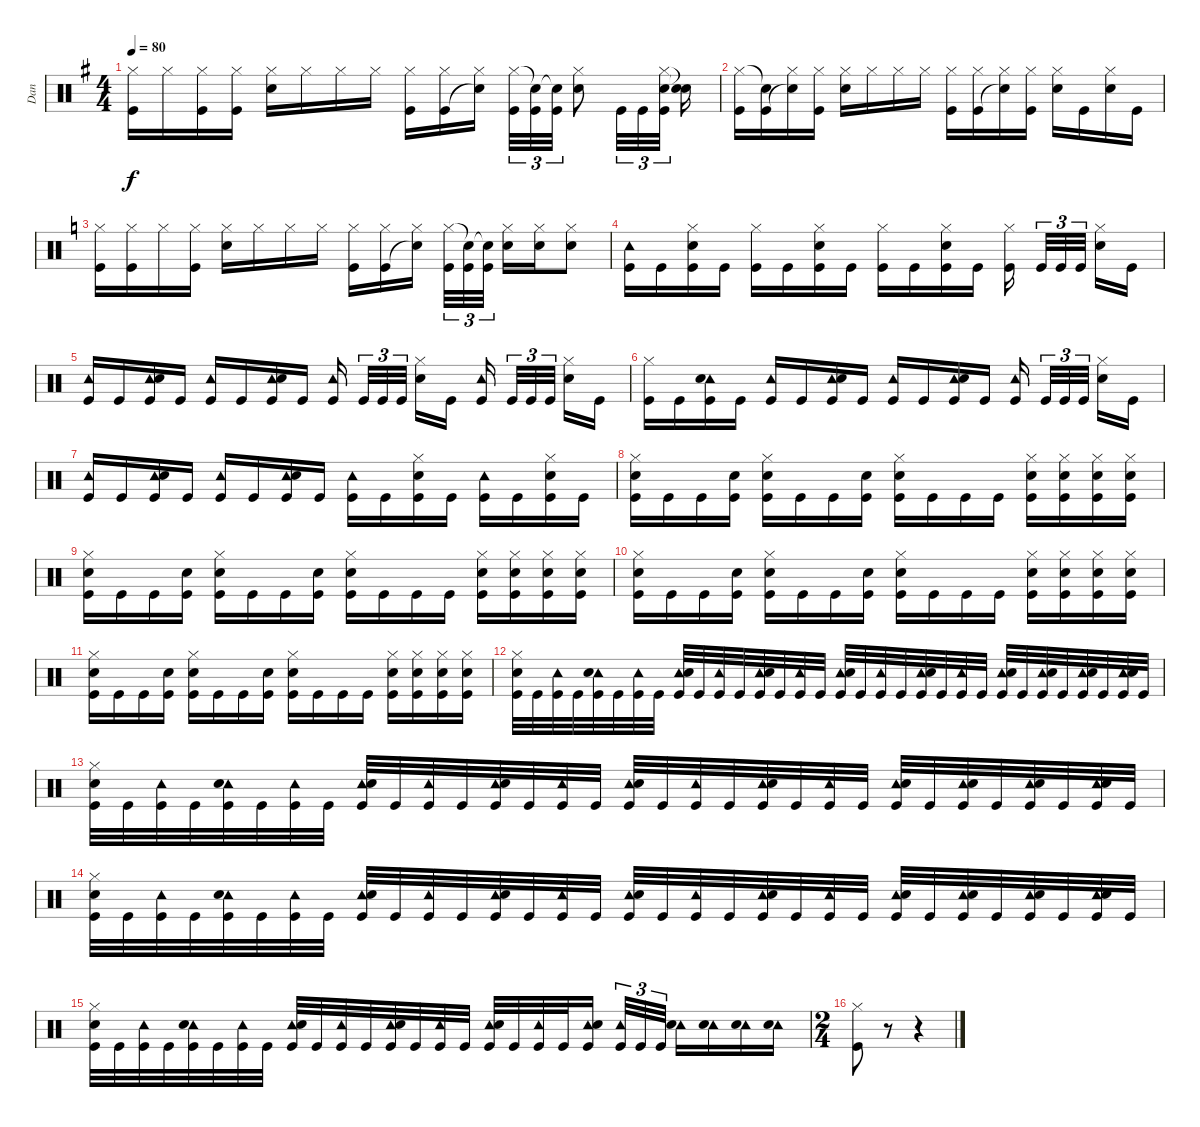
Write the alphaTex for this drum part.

\track ("Dan" "Dan") {instrument percussion}
\staff {score}
\articulation defaults
\ts (4 4)
\tempo 80
\clef neutral
\ks g
("Hi-Hat (closed)" "Kick (hit)").16{dy f} "Hi-Hat (closed)".16 ("Hi-Hat (closed)" "Kick (hit)").16 ("Hi-Hat (closed)" "Kick (hit)").16 ("Hi-Hat (closed)" "Snare (hit) 2").16 "Hi-Hat (closed)".16 "Hi-Hat (closed)".16 "Hi-Hat (closed)".16 ("Hi-Hat (closed)" "Kick (hit)").16 ("Hi-Hat (closed)" "Kick (hit)").16 ("Hi-Hat (closed)" "Snare (hit)"{t}).16{beam splitsecondary} ("Hi-Hat (closed)" "Kick (hit)").32{tu (3 2)} ("Snare (hit)"{t} "Kick (hit)").32{tu (3 2)} ("Snare (hit)"{t} "Kick (hit)").32{tu (3 2)} ("Hi-Hat (closed)" "Snare (hit) 2").8 "Kick (hit)".32{tu (3 2)} "Kick (hit)".32{tu (3 2)} ("Hi-Hat (closed)" "Snare (hit) 2" "Kick (hit)").32{tu (3 2) beam splitsecondary} ("Snare (hit)"{t} "Snare (hit)"{t}).16 |
("Hi-Hat (closed)" "Kick (hit)").16 ("Snare (hit)"{t} "Kick (hit)").16 ("Hi-Hat (closed)" "Snare (hit)"{t}).16 ("Hi-Hat (closed)" "Kick (hit)").16 ("Hi-Hat (closed)" "Snare (hit) 2").16 "Hi-Hat (closed)".16 "Hi-Hat (closed)".16 "Hi-Hat (closed)".16 ("Hi-Hat (closed)" "Kick (hit)").16 ("Hi-Hat (closed)" "Kick (hit)").16 ("Hi-Hat (closed)" "Snare (hit)"{t}).16 ("Hi-Hat (closed)" "Kick (hit)").16 ("Hi-Hat (closed)" "Snare (hit) 2").16 "Kick (hit)".16 ("Hi-Hat (closed)" "Snare (hit) 2").16 "Kick (hit)".16 |
\ks c
("Hi-Hat (closed)" "Kick (hit)").16 ("Hi-Hat (closed)" "Kick (hit)").16 "Hi-Hat (closed)".16 ("Hi-Hat (closed)" "Kick (hit)").16 ("Hi-Hat (closed)" "Snare (hit) 2").16 "Hi-Hat (closed)".16 "Hi-Hat (closed)".16 "Hi-Hat (closed)".16 ("Hi-Hat (closed)" "Kick (hit)").16 ("Hi-Hat (closed)" "Kick (hit)").16 ("Hi-Hat (closed)" "Snare (hit)"{t}).16{beam splitsecondary} ("Hi-Hat (closed)" "Kick (hit)").32{tu (3 2)} ("Snare (hit)"{t} "Kick (hit)").32{tu (3 2)} ("Snare (hit)"{t} "Kick (hit)").32{tu (3 2)} ("Hi-Hat (closed)" "Snare (hit) 2").16 ("Hi-Hat (closed)" "Snare (hit) 2").16 ("Hi-Hat (closed)" "Snare (hit) 2").8 |
("Tambourine (hit)" "Kick (hit)").16 "Kick (hit)".16 ("Hi-Hat (closed)" "Snare (hit) 2" "Kick (hit)").16 "Kick (hit)".16 ("Hi-Hat (closed)" "Kick (hit)").16 "Kick (hit)".16 ("Hi-Hat (closed)" "Snare (hit) 2" "Kick (hit)").16 "Kick (hit)".16 ("Hi-Hat (closed)" "Kick (hit)").16 "Kick (hit)".16 ("Hi-Hat (closed)" "Snare (hit) 2" "Kick (hit)").16 "Kick (hit)".16 ("Hi-Hat (closed)" "Kick (hit)").16{beam splitsecondary} "Kick (hit)".32{tu (3 2)} "Kick (hit)".32{tu (3 2)} "Kick (hit)".32{tu (3 2) beam splitsecondary} ("Hi-Hat (closed)" "Snare (hit) 2").16 "Kick (hit)".16 |
("Tambourine (hit)" "Kick (hit)").16 "Kick (hit)".16 ("Tambourine (hit)" "Snare (hit) 2" "Kick (hit)").16 "Kick (hit)".16 ("Tambourine (hit)" "Kick (hit)").16 "Kick (hit)".16 ("Tambourine (hit)" "Snare (hit) 2" "Kick (hit)").16 "Kick (hit)".16 ("Tambourine (hit)" "Kick (hit)").16{beam splitsecondary} "Kick (hit)".32{tu (3 2)} "Kick (hit)".32{tu (3 2)} "Kick (hit)".32{tu (3 2) beam splitsecondary} ("Hi-Hat (closed)" "Snare (hit) 2").16 "Kick (hit)".16 ("Tambourine (hit)" "Kick (hit)").16{beam splitsecondary} "Kick (hit)".32{tu (3 2)} "Kick (hit)".32{tu (3 2)} "Kick (hit)".32{tu (3 2) beam splitsecondary} ("Hi-Hat (closed)" "Snare (hit) 2").16 "Kick (hit)".16 |
("Hi-Hat (closed)" "Kick (hit)").16 "Kick (hit)".16 ("Tambourine (hit)" "Snare (hit) 2" "Kick (hit)").16 "Kick (hit)".16 ("Tambourine (hit)" "Kick (hit)").16 "Kick (hit)".16 ("Tambourine (hit)" "Snare (hit) 2" "Kick (hit)").16 "Kick (hit)".16 ("Tambourine (hit)" "Kick (hit)").16 "Kick (hit)".16 ("Tambourine (hit)" "Snare (hit) 2" "Kick (hit)").16 "Kick (hit)".16 ("Tambourine (hit)" "Kick (hit)").16{beam splitsecondary} "Kick (hit)".32{tu (3 2)} "Kick (hit)".32{tu (3 2)} "Kick (hit)".32{tu (3 2) beam splitsecondary} ("Hi-Hat (closed)" "Snare (hit) 2").16 "Kick (hit)".16 |
("Tambourine (hit)" "Kick (hit)").16 "Kick (hit)".16 ("Tambourine (hit)" "Snare (hit) 2" "Kick (hit)").16 "Kick (hit)".16 ("Tambourine (hit)" "Kick (hit)").16 "Kick (hit)".16 ("Tambourine (hit)" "Snare (hit) 2" "Kick (hit)").16 "Kick (hit)".16 ("Tambourine (hit)" "Kick (hit)").16 "Kick (hit)".16 ("Hi-Hat (closed)" "Snare (hit) 2" "Kick (hit)").16 "Kick (hit)".16 ("Tambourine (hit)" "Kick (hit)").16 "Kick (hit)".16 ("Hi-Hat (closed)" "Snare (hit) 2" "Kick (hit)").16 "Kick (hit)".16 |
("Hi-Hat (closed)" "Snare (hit) 2" "Kick (hit)").16 "Kick (hit)".16 "Kick (hit)".16 ("Snare (hit) 2" "Kick (hit)").16 ("Hi-Hat (closed)" "Snare (hit) 2" "Kick (hit)").16 "Kick (hit)".16 "Kick (hit)".16 ("Snare (hit) 2" "Kick (hit)").16 ("Hi-Hat (closed)" "Snare (hit) 2" "Kick (hit)").16 "Kick (hit)".16 "Kick (hit)".16 "Kick (hit)".16 ("Hi-Hat (closed)" "Snare (hit) 2" "Kick (hit)").16 ("Hi-Hat (closed)" "Snare (hit) 2" "Kick (hit)").16 ("Hi-Hat (closed)" "Snare (hit) 2" "Kick (hit)").16 ("Hi-Hat (closed)" "Snare (hit) 2" "Kick (hit)").16 |
("Hi-Hat (closed)" "Snare (hit) 2" "Kick (hit)").16 "Kick (hit)".16 "Kick (hit)".16 ("Snare (hit) 2" "Kick (hit)").16 ("Hi-Hat (closed)" "Snare (hit) 2" "Kick (hit)").16 "Kick (hit)".16 "Kick (hit)".16 ("Snare (hit) 2" "Kick (hit)").16 ("Hi-Hat (closed)" "Snare (hit) 2" "Kick (hit)").16 "Kick (hit)".16 "Kick (hit)".16 "Kick (hit)".16 ("Hi-Hat (closed)" "Snare (hit) 2" "Kick (hit)").16 ("Hi-Hat (closed)" "Snare (hit) 2" "Kick (hit)").16 ("Hi-Hat (closed)" "Snare (hit) 2" "Kick (hit)").16 ("Hi-Hat (closed)" "Snare (hit) 2" "Kick (hit)").16 |
("Hi-Hat (closed)" "Snare (hit) 2" "Kick (hit)").16 "Kick (hit)".16 "Kick (hit)".16 ("Snare (hit) 2" "Kick (hit)").16 ("Hi-Hat (closed)" "Snare (hit) 2" "Kick (hit)").16 "Kick (hit)".16 "Kick (hit)".16 ("Snare (hit) 2" "Kick (hit)").16 ("Hi-Hat (closed)" "Snare (hit) 2" "Kick (hit)").16 "Kick (hit)".16 "Kick (hit)".16 "Kick (hit)".16 ("Hi-Hat (closed)" "Snare (hit) 2" "Kick (hit)").16 ("Hi-Hat (closed)" "Snare (hit) 2" "Kick (hit)").16 ("Hi-Hat (closed)" "Snare (hit) 2" "Kick (hit)").16 ("Hi-Hat (closed)" "Snare (hit) 2" "Kick (hit)").16 |
("Hi-Hat (closed)" "Snare (hit) 2" "Kick (hit)").16 "Kick (hit)".16 "Kick (hit)".16 ("Snare (hit) 2" "Kick (hit)").16 ("Hi-Hat (closed)" "Snare (hit) 2" "Kick (hit)").16 "Kick (hit)".16 "Kick (hit)".16 ("Snare (hit) 2" "Kick (hit)").16 ("Hi-Hat (closed)" "Snare (hit) 2" "Kick (hit)").16 "Kick (hit)".16 "Kick (hit)".16 "Kick (hit)".16 ("Hi-Hat (closed)" "Snare (hit) 2" "Kick (hit)").16 ("Hi-Hat (closed)" "Snare (hit) 2" "Kick (hit)").16 ("Hi-Hat (closed)" "Snare (hit) 2" "Kick (hit)").16 ("Hi-Hat (closed)" "Snare (hit) 2" "Kick (hit)").16 |
("Hi-Hat (closed)" "Snare (hit) 2" "Kick (hit)").32 "Kick (hit)".32 ("Tambourine (hit)" "Kick (hit)").32 "Kick (hit)".32 ("Tambourine (hit)" "Snare (hit) 2" "Kick (hit)").32 "Kick (hit)".32 ("Tambourine (hit)" "Kick (hit)").32 "Kick (hit)".32 ("Tambourine (hit)" "Snare (hit) 2" "Kick (hit)").32 "Kick (hit)".32 ("Tambourine (hit)" "Kick (hit)").32 "Kick (hit)".32 ("Tambourine (hit)" "Snare (hit) 2" "Kick (hit)").32 "Kick (hit)".32 ("Tambourine (hit)" "Kick (hit)").32 "Kick (hit)".32 ("Tambourine (hit)" "Snare (hit) 2" "Kick (hit)").32 "Kick (hit)".32 ("Tambourine (hit)" "Kick (hit)").32 "Kick (hit)".32 ("Tambourine (hit)" "Snare (hit) 2" "Kick (hit)").32 "Kick (hit)".32 ("Tambourine (hit)" "Kick (hit)").32 "Kick (hit)".32 ("Tambourine (hit)" "Snare (hit) 2" "Kick (hit)").32 "Kick (hit)".32 ("Tambourine (hit)" "Snare (hit) 2" "Kick (hit)").32 "Kick (hit)".32 ("Tambourine (hit)" "Snare (hit) 2" "Kick (hit)").32 "Kick (hit)".32 ("Tambourine (hit)" "Snare (hit) 2" "Kick (hit)").32 "Kick (hit)".32 |
("Hi-Hat (closed)" "Snare (hit) 2" "Kick (hit)").32 "Kick (hit)".32 ("Tambourine (hit)" "Kick (hit)").32 "Kick (hit)".32 ("Tambourine (hit)" "Snare (hit) 2" "Kick (hit)").32 "Kick (hit)".32 ("Tambourine (hit)" "Kick (hit)").32 "Kick (hit)".32 ("Tambourine (hit)" "Snare (hit) 2" "Kick (hit)").32 "Kick (hit)".32 ("Tambourine (hit)" "Kick (hit)").32 "Kick (hit)".32 ("Tambourine (hit)" "Snare (hit) 2" "Kick (hit)").32 "Kick (hit)".32 ("Tambourine (hit)" "Kick (hit)").32 "Kick (hit)".32 ("Tambourine (hit)" "Snare (hit) 2" "Kick (hit)").32 "Kick (hit)".32 ("Tambourine (hit)" "Kick (hit)").32 "Kick (hit)".32 ("Tambourine (hit)" "Snare (hit) 2" "Kick (hit)").32 "Kick (hit)".32 ("Tambourine (hit)" "Kick (hit)").32 "Kick (hit)".32 ("Tambourine (hit)" "Snare (hit) 2" "Kick (hit)").32 "Kick (hit)".32 ("Tambourine (hit)" "Snare (hit) 2" "Kick (hit)").32 "Kick (hit)".32 ("Tambourine (hit)" "Snare (hit) 2" "Kick (hit)").32 "Kick (hit)".32 ("Tambourine (hit)" "Snare (hit) 2" "Kick (hit)").32 "Kick (hit)".32 |
("Hi-Hat (closed)" "Snare (hit) 2" "Kick (hit)").32 "Kick (hit)".32 ("Tambourine (hit)" "Kick (hit)").32 "Kick (hit)".32 ("Tambourine (hit)" "Snare (hit) 2" "Kick (hit)").32 "Kick (hit)".32 ("Tambourine (hit)" "Kick (hit)").32 "Kick (hit)".32 ("Tambourine (hit)" "Snare (hit) 2" "Kick (hit)").32 "Kick (hit)".32 ("Tambourine (hit)" "Kick (hit)").32 "Kick (hit)".32 ("Tambourine (hit)" "Snare (hit) 2" "Kick (hit)").32 "Kick (hit)".32 ("Tambourine (hit)" "Kick (hit)").32 "Kick (hit)".32 ("Tambourine (hit)" "Snare (hit) 2" "Kick (hit)").32 "Kick (hit)".32 ("Tambourine (hit)" "Kick (hit)").32 "Kick (hit)".32 ("Tambourine (hit)" "Snare (hit) 2" "Kick (hit)").32 "Kick (hit)".32 ("Tambourine (hit)" "Kick (hit)").32 "Kick (hit)".32 ("Tambourine (hit)" "Snare (hit) 2" "Kick (hit)").32 "Kick (hit)".32 ("Tambourine (hit)" "Snare (hit) 2" "Kick (hit)").32 "Kick (hit)".32 ("Tambourine (hit)" "Snare (hit) 2" "Kick (hit)").32 "Kick (hit)".32 ("Tambourine (hit)" "Snare (hit) 2" "Kick (hit)").32 "Kick (hit)".32 |
("Hi-Hat (closed)" "Snare (hit) 2" "Kick (hit)").32 "Kick (hit)".32 ("Tambourine (hit)" "Kick (hit)").32 "Kick (hit)".32 ("Tambourine (hit)" "Snare (hit) 2" "Kick (hit)").32 "Kick (hit)".32 ("Tambourine (hit)" "Kick (hit)").32 "Kick (hit)".32 ("Tambourine (hit)" "Snare (hit) 2" "Kick (hit)").32 "Kick (hit)".32 ("Tambourine (hit)" "Kick (hit)").32 "Kick (hit)".32 ("Tambourine (hit)" "Snare (hit) 2" "Kick (hit)").32 "Kick (hit)".32 ("Tambourine (hit)" "Kick (hit)").32 "Kick (hit)".32 ("Tambourine (hit)" "Snare (hit) 2" "Kick (hit)").32 "Kick (hit)".32 ("Tambourine (hit)" "Kick (hit)").32 "Kick (hit)".32 ("Tambourine (hit)" "Snare (hit) 2" "Kick (hit)").16{beam splitsecondary} ("Tambourine (hit)" "Kick (hit)").32{tu (3 2)} "Kick (hit)".32{tu (3 2)} "Kick (hit)".32{tu (3 2)} ("Tambourine (hit)" "Snare (hit) 2").16 ("Tambourine (hit)" "Snare (hit) 2").16 ("Tambourine (hit)" "Snare (hit) 2").16 ("Tambourine (hit)" "Snare (hit) 2").16 |
\ts (2 4)
("Hi-Hat (closed)" "Kick (hit)").8 r.8 r.4
